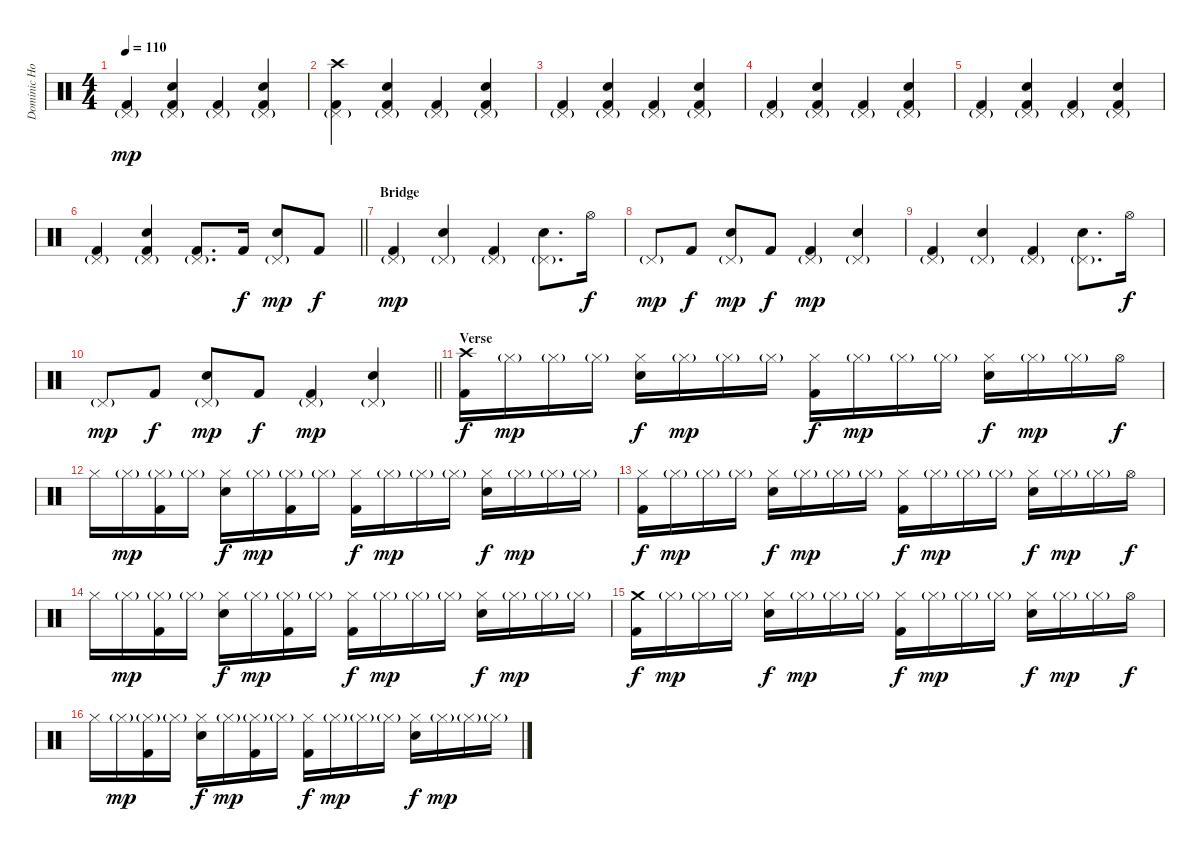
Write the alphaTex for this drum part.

\track ("Dominic Howard (Drums)" "Dominic Ho") {instrument percussion}
\staff {score}
\articulation defaults
\ts (4 4)
\tempo 110
\clef neutral
\ks c
("Pedal Hi-Hat (hit)"{g} "Kick (hit) 2").4{dy mp} ("Pedal Hi-Hat (hit)"{g} "Snare (hit) 2" "Kick (hit) 2").4 ("Pedal Hi-Hat (hit)"{g} "Kick (hit) 2").4 ("Pedal Hi-Hat (hit)"{g} "Snare (hit) 2" "Kick (hit) 2").4 |
("Pedal Hi-Hat (hit)"{g} "Crash high (hit)" "Kick (hit) 2").4 ("Pedal Hi-Hat (hit)"{g} "Snare (hit) 2" "Kick (hit) 2").4 ("Pedal Hi-Hat (hit)"{g} "Kick (hit) 2").4 ("Pedal Hi-Hat (hit)"{g} "Snare (hit) 2" "Kick (hit) 2").4 |
("Pedal Hi-Hat (hit)"{g} "Kick (hit) 2").4 ("Pedal Hi-Hat (hit)"{g} "Snare (hit) 2" "Kick (hit) 2").4 ("Pedal Hi-Hat (hit)"{g} "Kick (hit) 2").4 ("Pedal Hi-Hat (hit)"{g} "Snare (hit) 2" "Kick (hit) 2").4 |
("Pedal Hi-Hat (hit)"{g} "Kick (hit) 2").4 ("Pedal Hi-Hat (hit)"{g} "Snare (hit) 2" "Kick (hit) 2").4 ("Pedal Hi-Hat (hit)"{g} "Kick (hit) 2").4 ("Pedal Hi-Hat (hit)"{g} "Snare (hit) 2" "Kick (hit) 2").4 |
("Pedal Hi-Hat (hit)"{g} "Kick (hit) 2").4 ("Pedal Hi-Hat (hit)"{g} "Snare (hit) 2" "Kick (hit) 2").4 ("Pedal Hi-Hat (hit)"{g} "Kick (hit) 2").4 ("Pedal Hi-Hat (hit)"{g} "Snare (hit) 2" "Kick (hit) 2").4 |
\barLineRight lightlight
("Pedal Hi-Hat (hit)"{g} "Kick (hit) 2").4 ("Pedal Hi-Hat (hit)"{g} "Snare (hit) 2" "Kick (hit) 2").4 ("Pedal Hi-Hat (hit)"{g} "Kick (hit) 2").8{d} "Kick (hit) 2".16{dy f} ("Pedal Hi-Hat (hit)"{g} "Snare (hit) 2").8{dy mp} "Kick (hit) 2".8{dy f} |
\section ("" "Bridge")
("Pedal Hi-Hat (hit)"{g} "Kick (hit) 2").4{dy mp} ("Pedal Hi-Hat (hit)"{g} "Snare (hit) 2").4 ("Pedal Hi-Hat (hit)"{g} "Kick (hit) 2").4 ("Pedal Hi-Hat (hit)"{g} "Snare (hit) 2").8{d} "Hi-Hat (open)".16{dy f} |
"Pedal Hi-Hat (hit)"{g}.8{dy mp} "Kick (hit) 2".8{dy f} ("Pedal Hi-Hat (hit)"{g} "Snare (hit) 2").8{dy mp} "Kick (hit) 2".8{dy f} ("Pedal Hi-Hat (hit)"{g} "Kick (hit) 2").4{dy mp} ("Pedal Hi-Hat (hit)"{g} "Snare (hit) 2").4 |
("Pedal Hi-Hat (hit)"{g} "Kick (hit) 2").4 ("Pedal Hi-Hat (hit)"{g} "Snare (hit) 2").4 ("Pedal Hi-Hat (hit)"{g} "Kick (hit) 2").4 ("Pedal Hi-Hat (hit)"{g} "Snare (hit) 2").8{d} "Hi-Hat (open)".16{dy f} |
\barLineRight lightlight "Pedal Hi-Hat (hit)"{g}.8{dy mp} "Kick (hit) 2".8{dy f}
("Pedal Hi-Hat (hit)"{g} "Snare (hit) 2").8{dy mp} "Kick (hit) 2".8{dy f} ("Pedal Hi-Hat (hit)"{g} "Kick (hit) 2").4{dy mp} ("Pedal Hi-Hat (hit)"{g} "Snare (hit) 2").4 |
\section ("" "Verse")
("Crash high (hit)" "Kick (hit) 2").16{dy f} "Hi-Hat (closed)"{g}.16{dy mp} "Hi-Hat (closed)"{g}.16 "Hi-Hat (closed)"{g}.16 ("Hi-Hat (closed)" "Snare (hit) 2").16{dy f} "Hi-Hat (closed)"{g}.16{dy mp} "Hi-Hat (closed)"{g}.16 "Hi-Hat (closed)"{g}.16 ("Hi-Hat (closed)" "Kick (hit) 2").16{dy f} "Hi-Hat (closed)"{g}.16{dy mp} "Hi-Hat (closed)"{g}.16 "Hi-Hat (closed)"{g}.16 ("Hi-Hat (closed)" "Snare (hit) 2").16{dy f} "Hi-Hat (closed)"{g}.16{dy mp} "Hi-Hat (closed)"{g}.16 "Hi-Hat (open)".16{dy f} |
"Hi-Hat (closed)".16 "Hi-Hat (closed)"{g}.16{dy mp} ("Hi-Hat (closed)"{g} "Kick (hit) 2").16 "Hi-Hat (closed)"{g}.16 ("Hi-Hat (closed)" "Snare (hit) 2").16{dy f} "Hi-Hat (closed)"{g}.16{dy mp} ("Hi-Hat (closed)"{g} "Kick (hit) 2").16 "Hi-Hat (closed)"{g}.16 ("Hi-Hat (closed)" "Kick (hit) 2").16{dy f} "Hi-Hat (closed)"{g}.16{dy mp} "Hi-Hat (closed)"{g}.16 "Hi-Hat (closed)"{g}.16 ("Hi-Hat (closed)" "Snare (hit) 2").16{dy f} "Hi-Hat (closed)"{g}.16{dy mp} "Hi-Hat (closed)"{g}.16 "Hi-Hat (closed)"{g}.16 |
("Hi-Hat (closed)" "Kick (hit) 2").16{dy f} "Hi-Hat (closed)"{g}.16{dy mp} "Hi-Hat (closed)"{g}.16 "Hi-Hat (closed)"{g}.16 ("Hi-Hat (closed)" "Snare (hit) 2").16{dy f} "Hi-Hat (closed)"{g}.16{dy mp} "Hi-Hat (closed)"{g}.16 "Hi-Hat (closed)"{g}.16 ("Hi-Hat (closed)" "Kick (hit) 2").16{dy f} "Hi-Hat (closed)"{g}.16{dy mp} "Hi-Hat (closed)"{g}.16 "Hi-Hat (closed)"{g}.16 ("Hi-Hat (closed)" "Snare (hit) 2").16{dy f} "Hi-Hat (closed)"{g}.16{dy mp} "Hi-Hat (closed)"{g}.16 "Hi-Hat (open)".16{dy f} |
"Hi-Hat (closed)".16 "Hi-Hat (closed)"{g}.16{dy mp} ("Hi-Hat (closed)"{g} "Kick (hit) 2").16 "Hi-Hat (closed)"{g}.16 ("Hi-Hat (closed)" "Snare (hit) 2").16{dy f} "Hi-Hat (closed)"{g}.16{dy mp} ("Hi-Hat (closed)"{g} "Kick (hit) 2").16 "Hi-Hat (closed)"{g}.16 ("Hi-Hat (closed)" "Kick (hit) 2").16{dy f} "Hi-Hat (closed)"{g}.16{dy mp} "Hi-Hat (closed)"{g}.16 "Hi-Hat (closed)"{g}.16 ("Hi-Hat (closed)" "Snare (hit) 2").16{dy f} "Hi-Hat (closed)"{g}.16{dy mp} "Hi-Hat (closed)"{g}.16 "Hi-Hat (closed)"{g}.16 |
("Crash medium (hit)" "Kick (hit) 2").16{dy f} "Hi-Hat (closed)"{g}.16{dy mp} "Hi-Hat (closed)"{g}.16 "Hi-Hat (closed)"{g}.16 ("Hi-Hat (closed)" "Snare (hit) 2").16{dy f} "Hi-Hat (closed)"{g}.16{dy mp} "Hi-Hat (closed)"{g}.16 "Hi-Hat (closed)"{g}.16 ("Hi-Hat (closed)" "Kick (hit) 2").16{dy f} "Hi-Hat (closed)"{g}.16{dy mp} "Hi-Hat (closed)"{g}.16 "Hi-Hat (closed)"{g}.16 ("Hi-Hat (closed)" "Snare (hit) 2").16{dy f} "Hi-Hat (closed)"{g}.16{dy mp} "Hi-Hat (closed)"{g}.16 "Hi-Hat (open)".16{dy f} |
"Hi-Hat (closed)".16 "Hi-Hat (closed)"{g}.16{dy mp} ("Hi-Hat (closed)"{g} "Kick (hit) 2").16 "Hi-Hat (closed)"{g}.16 ("Hi-Hat (closed)" "Snare (hit) 2").16{dy f} "Hi-Hat (closed)"{g}.16{dy mp} ("Hi-Hat (closed)"{g} "Kick (hit) 2").16 "Hi-Hat (closed)"{g}.16 ("Hi-Hat (closed)" "Kick (hit) 2").16{dy f} "Hi-Hat (closed)"{g}.16{dy mp} "Hi-Hat (closed)"{g}.16 "Hi-Hat (closed)"{g}.16 ("Hi-Hat (closed)" "Snare (hit) 2").16{dy f} "Hi-Hat (closed)"{g}.16{dy mp} "Hi-Hat (closed)"{g}.16 "Hi-Hat (closed)"{g}.16
